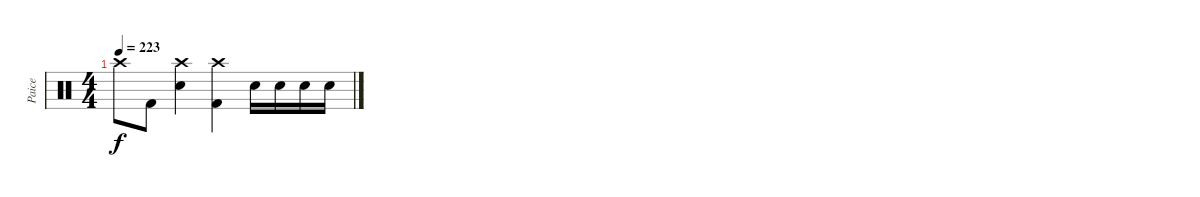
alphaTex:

\track ("Paice" "Paice") {instrument percussion}
\staff {score}
\articulation defaults
\ts (4 4)
\tempo 223
\clef neutral
\ks c "Crash high (hit)".8{dy f} "Kick (hit) 2".8
("Crash high (hit)" "Electric Snare (hit)").4 ("Crash high (hit)" "Kick (hit) 2").4 "Electric Snare (hit)".16 "Electric Snare (hit)".16 "Electric Snare (hit)".16 "Electric Snare (hit)".16
